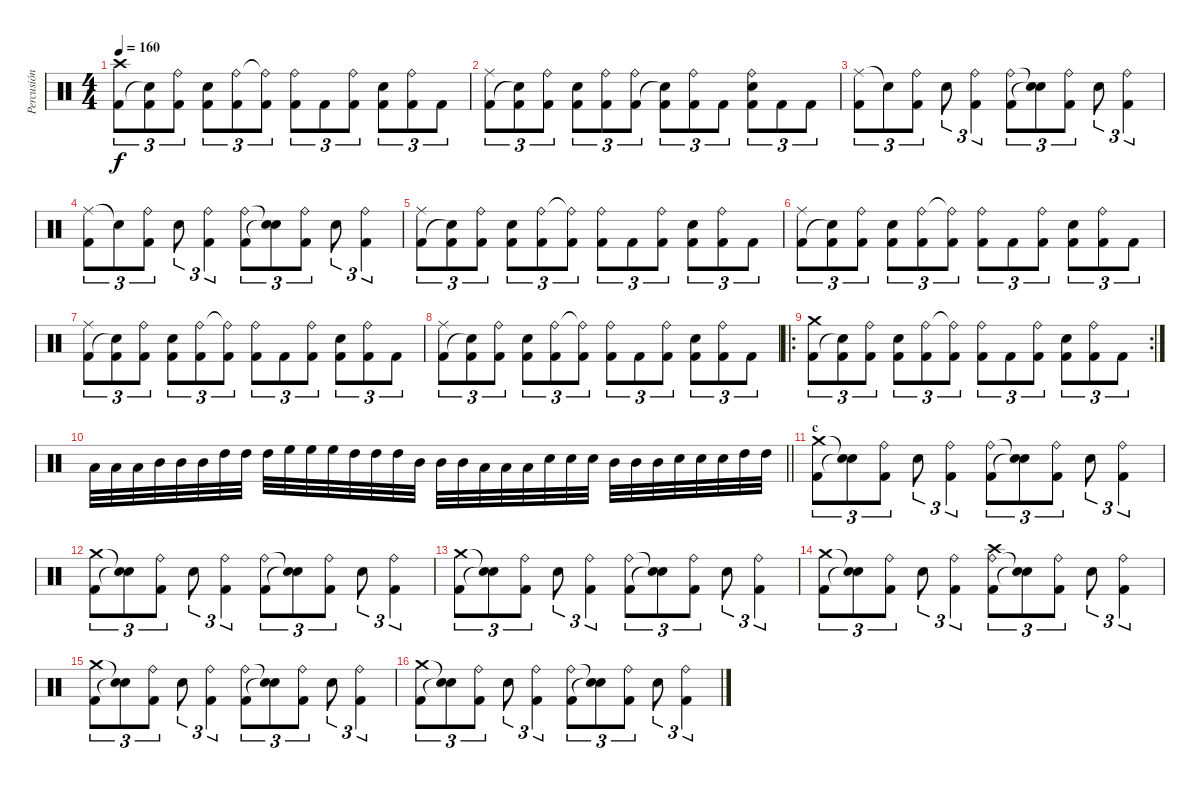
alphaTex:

\track ("Percusión" "Percusión") {instrument percussion}
\staff {score}
\articulation defaults
\ts (4 4)
\tempo 160
\clef neutral
\ks c
("Crash high (hit)" "Kick (hit) 2").8{tu (3 2) dy f} ("Kick (hit) 2" "Snare (hit)"{t}).8{tu (3 2)} ("Ride (bell)" "Kick (hit) 2").8{tu (3 2)} ("Snare (hit) 2" "Kick (hit) 2").8{tu (3 2)} ("Ride (bell)" "Kick (hit) 2").8{tu (3 2)} ("Ride (bell)"{t} "Kick (hit) 2").8{tu (3 2)} ("Kick (hit) 2" "Ride (bell)").8{tu (3 2)} "Kick (hit) 2".8{tu (3 2)} ("Ride (bell)" "Kick (hit) 2").8{tu (3 2)} ("Kick (hit) 2" "Snare (hit) 2").8{tu (3 2)} ("Kick (hit) 2" "Ride (bell)").8{tu (3 2)} "Kick (hit) 2".8{tu (3 2)} |
("Ride (middle)" "Kick (hit) 2").8{tu (3 2)} ("Kick (hit) 2" "Snare (hit)"{t}).8{tu (3 2)} ("Ride (bell)" "Kick (hit) 2").8{tu (3 2)} ("Snare (hit) 2" "Kick (hit) 2").8{tu (3 2)} ("Ride (bell)" "Kick (hit) 2").8{tu (3 2)} ("Ride (bell)" "Kick (hit) 2").8{tu (3 2)} ("Kick (hit) 2" "Snare (hit)"{t}).8{tu (3 2)} ("Ride (bell)" "Kick (hit) 2").8{tu (3 2)} "Kick (hit) 2".8{tu (3 2)} ("Ride (bell)" "Kick (hit) 2" "Snare (hit) 2").8{tu (3 2)} "Kick (hit) 2".8{tu (3 2)} "Kick (hit) 2".8{tu (3 2)} |
("Ride (middle)" "Kick (hit) 2").8{tu (3 2)} "Snare (hit)"{t}.8{tu (3 2)} ("Ride (bell)" "Kick (hit) 2").8{tu (3 2)} "Snare (hit) 2".8{tu (3 2)} ("Ride (bell)" "Kick (hit) 2").4{tu (3 2)} ("Ride (bell)" "Kick (hit) 2").8{tu (3 2)} ("Snare (hit)"{t} "Snare (hit)"{t}).8{tu (3 2)} ("Ride (bell)" "Kick (hit) 2").8{tu (3 2)} "Snare (hit) 2".8{tu (3 2)} ("Ride (bell)" "Kick (hit) 2").4{tu (3 2)} |
("Ride (middle)" "Kick (hit) 2").8{tu (3 2)} "Snare (hit)"{t}.8{tu (3 2)} ("Ride (bell)" "Kick (hit) 2").8{tu (3 2)} "Snare (hit) 2".8{tu (3 2)} ("Ride (bell)" "Kick (hit) 2").4{tu (3 2)} ("Ride (bell)" "Kick (hit) 2").8{tu (3 2)} ("Snare (hit)"{t} "Snare (hit)"{t}).8{tu (3 2)} ("Ride (bell)" "Kick (hit) 2").8{tu (3 2)} "Snare (hit) 2".8{tu (3 2)} ("Ride (bell)" "Kick (hit) 2").4{tu (3 2)} |
("Ride (middle)" "Kick (hit) 2").8{tu (3 2)} ("Kick (hit) 2" "Snare (hit)"{t}).8{tu (3 2)} ("Ride (bell)" "Kick (hit) 2").8{tu (3 2)} ("Snare (hit) 2" "Kick (hit) 2").8{tu (3 2)} ("Ride (bell)" "Kick (hit) 2").8{tu (3 2)} ("Ride (bell)"{t} "Kick (hit) 2").8{tu (3 2)} ("Kick (hit) 2" "Ride (bell)").8{tu (3 2)} "Kick (hit) 2".8{tu (3 2)} ("Ride (bell)" "Kick (hit) 2").8{tu (3 2)} ("Kick (hit) 2" "Snare (hit) 2").8{tu (3 2)} ("Kick (hit) 2" "Ride (bell)").8{tu (3 2)} "Kick (hit) 2".8{tu (3 2)} |
("Ride (middle)" "Kick (hit) 2").8{tu (3 2)} ("Kick (hit) 2" "Snare (hit)"{t}).8{tu (3 2)} ("Ride (bell)" "Kick (hit) 2").8{tu (3 2)} ("Snare (hit) 2" "Kick (hit) 2").8{tu (3 2)} ("Ride (bell)" "Kick (hit) 2").8{tu (3 2)} ("Ride (bell)"{t} "Kick (hit) 2").8{tu (3 2)} ("Kick (hit) 2" "Ride (bell)").8{tu (3 2)} "Kick (hit) 2".8{tu (3 2)} ("Ride (bell)" "Kick (hit) 2").8{tu (3 2)} ("Kick (hit) 2" "Snare (hit) 2").8{tu (3 2)} ("Kick (hit) 2" "Ride (bell)").8{tu (3 2)} "Kick (hit) 2".8{tu (3 2)} |
("Ride (middle)" "Kick (hit) 2").8{tu (3 2)} ("Kick (hit) 2" "Snare (hit)"{t}).8{tu (3 2)} ("Ride (bell)" "Kick (hit) 2").8{tu (3 2)} ("Snare (hit) 2" "Kick (hit) 2").8{tu (3 2)} ("Ride (bell)" "Kick (hit) 2").8{tu (3 2)} ("Ride (bell)"{t} "Kick (hit) 2").8{tu (3 2)} ("Kick (hit) 2" "Ride (bell)").8{tu (3 2)} "Kick (hit) 2".8{tu (3 2)} ("Ride (bell)" "Kick (hit) 2").8{tu (3 2)} ("Kick (hit) 2" "Snare (hit) 2").8{tu (3 2)} ("Kick (hit) 2" "Ride (bell)").8{tu (3 2)} "Kick (hit) 2".8{tu (3 2)} |
("Ride (middle)" "Kick (hit) 2").8{tu (3 2)} ("Kick (hit) 2" "Snare (hit)"{t}).8{tu (3 2)} ("Ride (bell)" "Kick (hit) 2").8{tu (3 2)} ("Snare (hit) 2" "Kick (hit) 2").8{tu (3 2)} ("Ride (bell)" "Kick (hit) 2").8{tu (3 2)} ("Ride (bell)"{t} "Kick (hit) 2").8{tu (3 2)} ("Kick (hit) 2" "Ride (bell)").8{tu (3 2)} "Kick (hit) 2".8{tu (3 2)} ("Ride (bell)" "Kick (hit) 2").8{tu (3 2)} ("Kick (hit) 2" "Snare (hit) 2").8{tu (3 2)} ("Kick (hit) 2" "Ride (bell)").8{tu (3 2)} "Kick (hit) 2".8{tu (3 2)} |
\ro
\rc 2
("Crash medium (hit)" "Kick (hit) 2").8{tu (3 2)} ("Kick (hit) 2" "Snare (hit)"{t}).8{tu (3 2)} ("Ride (bell)" "Kick (hit) 2").8{tu (3 2)} ("Snare (hit) 2" "Kick (hit) 2").8{tu (3 2)} ("Ride (bell)" "Kick (hit) 2").8{tu (3 2)} ("Ride (bell)"{t} "Kick (hit) 2").8{tu (3 2)} ("Kick (hit) 2" "Ride (bell)").8{tu (3 2)} "Kick (hit) 2".8{tu (3 2)} ("Ride (bell)" "Kick (hit) 2").8{tu (3 2)} ("Kick (hit) 2" "Snare (hit) 2").8{tu (3 2)} ("Kick (hit) 2" "Ride (bell)").8{tu (3 2)} "Kick (hit) 2".8{tu (3 2)} |
\barLineRight lightlight "Low Tom (hit)".32 "Low Tom (hit)".32 "Low Tom (hit)".32 "Mid Tom (hit)".32 "Mid Tom (hit)".32 "Mid Tom (hit)".32 "High Tom (hit)".32 "High Tom (hit)".32 "High Tom (hit)".32 "High Floor Tom (hit)".32 "High Floor Tom (hit)".32 "High Floor Tom (hit)".32 "High Tom (hit)".32 "High Tom (hit)".32 "High Tom (hit)".32 "Mid Tom (hit)".32 "Mid Tom (hit)".32 "Mid Tom (hit)".32 "Low Tom (hit)".32 "Low Tom (hit)".32 "Low Tom (hit)".32 "Snare (hit) 2".32 "Snare (hit) 2".32 "Snare (hit) 2".32 "Mid Tom (hit)".32 "Mid Tom (hit)".32 "Mid Tom (hit)".32 "Snare (hit) 2".32 "Snare (hit) 2".32 "Snare (hit) 2".32 "High Tom (hit)".32 "High Tom (hit)".32
|
\section ("" "c")
("Crash medium (hit)" "Kick (hit) 2").8{tu (3 2)} ("Snare (hit)"{t} "Snare (hit)"{t}).8{tu (3 2)} ("Ride (bell)" "Kick (hit) 2").8{tu (3 2)} "Snare (hit) 2".8{tu (3 2)} ("Ride (bell)" "Kick (hit) 2").4{tu (3 2)} ("Ride (bell)" "Kick (hit) 2").8{tu (3 2)} ("Snare (hit)"{t} "Snare (hit)"{t}).8{tu (3 2)} ("Ride (bell)" "Kick (hit) 2").8{tu (3 2)} "Snare (hit) 2".8{tu (3 2)} ("Ride (bell)" "Kick (hit) 2").4{tu (3 2)} |
("Crash medium (hit)" "Kick (hit) 2").8{tu (3 2)} ("Snare (hit)"{t} "Snare (hit)"{t}).8{tu (3 2)} ("Ride (bell)" "Kick (hit) 2").8{tu (3 2)} "Snare (hit) 2".8{tu (3 2)} ("Ride (bell)" "Kick (hit) 2").4{tu (3 2)} ("Ride (bell)" "Kick (hit) 2").8{tu (3 2)} ("Snare (hit)"{t} "Snare (hit)"{t}).8{tu (3 2)} ("Ride (bell)" "Kick (hit) 2").8{tu (3 2)} "Snare (hit) 2".8{tu (3 2)} ("Ride (bell)" "Kick (hit) 2").4{tu (3 2)} |
("Crash medium (hit)" "Kick (hit) 2").8{tu (3 2)} ("Snare (hit)"{t} "Snare (hit)"{t}).8{tu (3 2)} ("Ride (bell)" "Kick (hit) 2").8{tu (3 2)} "Snare (hit) 2".8{tu (3 2)} ("Ride (bell)" "Kick (hit) 2").4{tu (3 2)} ("Ride (bell)" "Kick (hit) 2").8{tu (3 2)} ("Snare (hit)"{t} "Snare (hit)"{t}).8{tu (3 2)} ("Ride (bell)" "Kick (hit) 2").8{tu (3 2)} "Snare (hit) 2".8{tu (3 2)} ("Ride (bell)" "Kick (hit) 2").4{tu (3 2)} |
("Crash medium (hit)" "Kick (hit) 2").8{tu (3 2)} ("Snare (hit)"{t} "Snare (hit)"{t}).8{tu (3 2)} ("Ride (bell)" "Kick (hit) 2").8{tu (3 2)} "Snare (hit) 2".8{tu (3 2)} ("Ride (bell)" "Kick (hit) 2").4{tu (3 2)} ("Ride (bell)" "Kick (hit) 2" "Crash high (hit)").8{tu (3 2)} ("Snare (hit)"{t} "Snare (hit)"{t}).8{tu (3 2)} ("Ride (bell)" "Kick (hit) 2").8{tu (3 2)} "Snare (hit) 2".8{tu (3 2)} ("Ride (bell)" "Kick (hit) 2").4{tu (3 2)} |
("Crash medium (hit)" "Kick (hit) 2").8{tu (3 2)} ("Snare (hit)"{t} "Snare (hit)"{t}).8{tu (3 2)} ("Ride (bell)" "Kick (hit) 2").8{tu (3 2)} "Snare (hit) 2".8{tu (3 2)} ("Ride (bell)" "Kick (hit) 2").4{tu (3 2)} ("Ride (bell)" "Kick (hit) 2").8{tu (3 2)} ("Snare (hit)"{t} "Snare (hit)"{t}).8{tu (3 2)} ("Ride (bell)" "Kick (hit) 2").8{tu (3 2)} "Snare (hit) 2".8{tu (3 2)} ("Ride (bell)" "Kick (hit) 2").4{tu (3 2)} |
("Crash medium (hit)" "Kick (hit) 2").8{tu (3 2)} ("Snare (hit)"{t} "Snare (hit)"{t}).8{tu (3 2)} ("Ride (bell)" "Kick (hit) 2").8{tu (3 2)} "Snare (hit) 2".8{tu (3 2)} ("Ride (bell)" "Kick (hit) 2").4{tu (3 2)} ("Ride (bell)" "Kick (hit) 2").8{tu (3 2)} ("Snare (hit)"{t} "Snare (hit)"{t}).8{tu (3 2)} ("Ride (bell)" "Kick (hit) 2").8{tu (3 2)} "Snare (hit) 2".8{tu (3 2)} ("Ride (bell)" "Kick (hit) 2").4{tu (3 2)}
